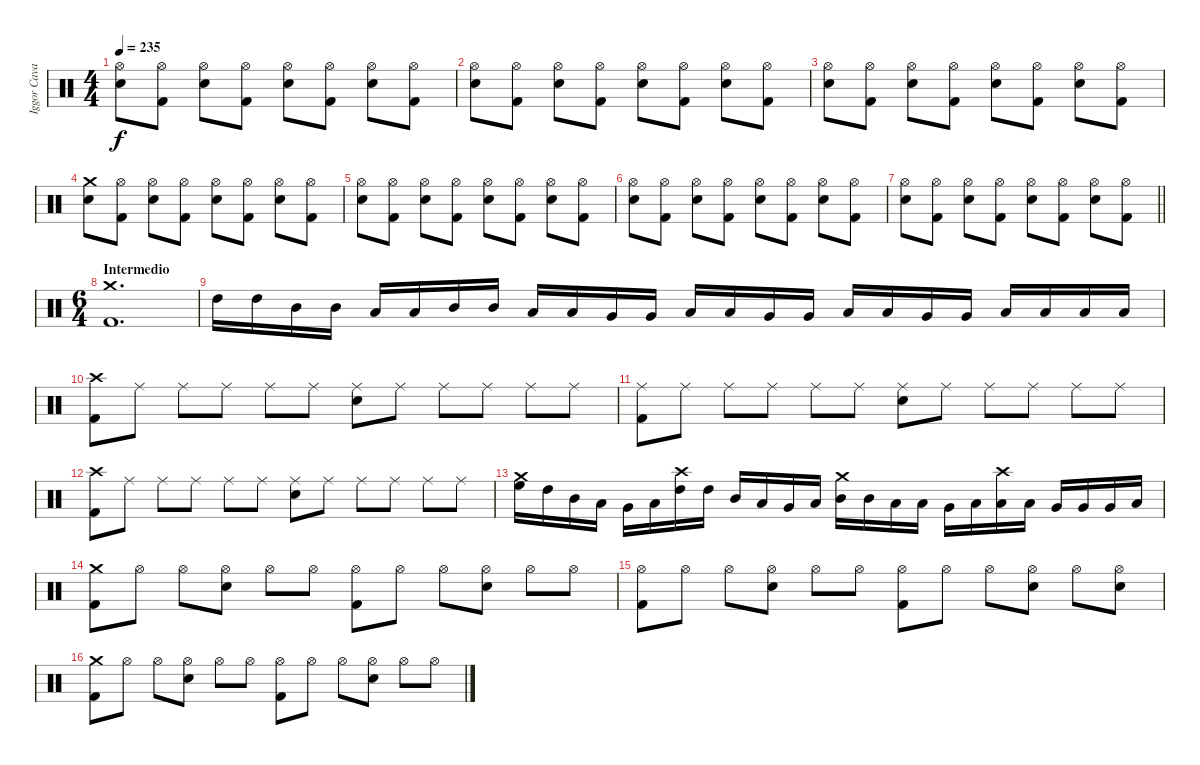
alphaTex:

\track ("Iggor Cavalera" "Iggor Cava") {instrument percussion}
\staff {score}
\articulation defaults
\ts (4 4)
\tempo 235
\clef neutral
\ks c
("Hi-Hat (open)" "Snare (hit) 2").8{dy f} ("Hi-Hat (open)" "Kick (hit) 2").8 ("Hi-Hat (open)" "Snare (hit) 2").8 ("Hi-Hat (open)" "Kick (hit) 2").8 ("Hi-Hat (open)" "Snare (hit) 2").8 ("Hi-Hat (open)" "Kick (hit) 2").8 ("Hi-Hat (open)" "Snare (hit) 2").8 ("Hi-Hat (open)" "Kick (hit) 2").8 |
("Hi-Hat (open)" "Snare (hit) 2").8 ("Hi-Hat (open)" "Kick (hit) 2").8 ("Hi-Hat (open)" "Snare (hit) 2").8 ("Hi-Hat (open)" "Kick (hit) 2").8 ("Hi-Hat (open)" "Snare (hit) 2").8 ("Hi-Hat (open)" "Kick (hit) 2").8 ("Hi-Hat (open)" "Snare (hit) 2").8 ("Hi-Hat (open)" "Kick (hit) 2").8 |
("Hi-Hat (open)" "Snare (hit) 2").8 ("Hi-Hat (open)" "Kick (hit) 2").8 ("Hi-Hat (open)" "Snare (hit) 2").8 ("Hi-Hat (open)" "Kick (hit) 2").8 ("Hi-Hat (open)" "Snare (hit) 2").8 ("Hi-Hat (open)" "Kick (hit) 2").8 ("Hi-Hat (open)" "Snare (hit) 2").8 ("Hi-Hat (open)" "Kick (hit) 2").8 |
("Crash medium (hit)" "Snare (hit) 2").8 ("Hi-Hat (open)" "Kick (hit) 2").8 ("Hi-Hat (open)" "Snare (hit) 2").8 ("Hi-Hat (open)" "Kick (hit) 2").8 ("Hi-Hat (open)" "Snare (hit) 2").8 ("Hi-Hat (open)" "Kick (hit) 2").8 ("Hi-Hat (open)" "Snare (hit) 2").8 ("Hi-Hat (open)" "Kick (hit) 2").8 |
("Hi-Hat (open)" "Snare (hit) 2").8 ("Hi-Hat (open)" "Kick (hit) 2").8 ("Hi-Hat (open)" "Snare (hit) 2").8 ("Hi-Hat (open)" "Kick (hit) 2").8 ("Hi-Hat (open)" "Snare (hit) 2").8 ("Hi-Hat (open)" "Kick (hit) 2").8 ("Hi-Hat (open)" "Snare (hit) 2").8 ("Hi-Hat (open)" "Kick (hit) 2").8 |
("Hi-Hat (open)" "Snare (hit) 2").8 ("Hi-Hat (open)" "Kick (hit) 2").8 ("Hi-Hat (open)" "Snare (hit) 2").8 ("Hi-Hat (open)" "Kick (hit) 2").8 ("Hi-Hat (open)" "Snare (hit) 2").8 ("Hi-Hat (open)" "Kick (hit) 2").8 ("Hi-Hat (open)" "Snare (hit) 2").8 ("Hi-Hat (open)" "Kick (hit) 2").8 |
\barLineRight lightlight
("Hi-Hat (open)" "Snare (hit) 2").8 ("Hi-Hat (open)" "Kick (hit) 2").8 ("Hi-Hat (open)" "Snare (hit) 2").8 ("Hi-Hat (open)" "Kick (hit) 2").8 ("Hi-Hat (open)" "Snare (hit) 2").8 ("Hi-Hat (open)" "Kick (hit) 2").8 ("Hi-Hat (open)" "Snare (hit) 2").8 ("Hi-Hat (open)" "Kick (hit) 2").8 |
\ts (6 4)
\section ("" "Intermedio")
("Crash medium (hit)" "Kick (hit) 2").1{d} |
"High Tom (hit)".16 "High Tom (hit)".16 "Mid Tom (hit)".16 "Mid Tom (hit)".16 "Low Tom (hit)".16 "Low Tom (hit)".16 "Mid Tom (hit)".16 "Mid Tom (hit)".16 "Low Tom (hit)".16 "Low Tom (hit)".16 "Very Low Tom (hit)".16 "Very Low Tom (hit)".16 "Low Tom (hit)".16 "Low Tom (hit)".16 "Very Low Tom (hit)".16 "Very Low Tom (hit)".16 "Low Floor Tom (hit)".16 "Low Floor Tom (hit)".16 "Very Low Tom (hit)".16 "Very Low Tom (hit)".16 "Low Floor Tom (hit)".16 "Low Floor Tom (hit)".16 "Low Floor Tom (hit)".16 "Low Floor Tom (hit)".16 |
("Crash high (hit)" "Kick (hit) 2").8 "Ride (middle)".8 "Ride (middle)".8 "Ride (middle)".8 "Ride (middle)".8 "Ride (middle)".8 ("Ride (middle)" "Snare (hit) 2").8 "Ride (middle)".8 "Ride (middle)".8 "Ride (middle)".8 "Ride (middle)".8 "Ride (middle)".8 |
("Ride (middle)" "Kick (hit) 2").8 "Ride (middle)".8 "Ride (middle)".8 "Ride (middle)".8 "Ride (middle)".8 "Ride (middle)".8 ("Ride (middle)" "Snare (hit) 2").8 "Ride (middle)".8 "Ride (middle)".8 "Ride (middle)".8 "Ride (middle)".8 "Ride (middle)".8 |
("Crash high (hit)" "Kick (hit) 2").8 "Ride (middle)".8 "Ride (middle)".8 "Ride (middle)".8 "Ride (middle)".8 "Ride (middle)".8 ("Ride (middle)" "Snare (hit) 2").8 "Ride (middle)".8 "Ride (middle)".8 "Ride (middle)".8 "Ride (middle)".8 "Ride (middle)".8 |
("Crash medium (hit)" "High Floor Tom (hit)").16 "High Tom (hit)".16 "Mid Tom (hit)".16 "Low Tom (hit)".16 "Very Low Tom (hit)".16 "Low Floor Tom (hit)".16 ("Crash high (hit)" "High Tom (hit)").16 "High Tom (hit)".16 "Mid Tom (hit)".16 "Low Tom (hit)".16 "Very Low Tom (hit)".16 "Low Floor Tom (hit)".16 ("Crash medium (hit)" "Mid Tom (hit)").16 "Mid Tom (hit)".16 "Low Tom (hit)".16 "Low Tom (hit)".16 "Very Low Tom (hit)".16 "Low Floor Tom (hit)".16 ("Crash high (hit)" "Low Tom (hit)").16 "Low Tom (hit)".16 "Very Low Tom (hit)".16 "Very Low Tom (hit)".16 "Very Low Tom (hit)".16 "Low Floor Tom (hit)".16 |
("Crash medium (hit)" "Kick (hit) 2").8 "Hi-Hat (open)".8 "Hi-Hat (open)".8 ("Hi-Hat (open)" "Snare (hit) 2").8 "Hi-Hat (open)".8 "Hi-Hat (open)".8 ("Hi-Hat (open)" "Kick (hit) 2").8 "Hi-Hat (open)".8 "Hi-Hat (open)".8 ("Hi-Hat (open)" "Snare (hit) 2").8 "Hi-Hat (open)".8 "Hi-Hat (open)".8 |
("Hi-Hat (open)" "Kick (hit) 2").8 "Hi-Hat (open)".8 "Hi-Hat (open)".8 ("Hi-Hat (open)" "Snare (hit) 2").8 "Hi-Hat (open)".8 "Hi-Hat (open)".8 ("Hi-Hat (open)" "Kick (hit) 2").8 "Hi-Hat (open)".8 "Hi-Hat (open)".8 ("Hi-Hat (open)" "Snare (hit) 2").8 "Hi-Hat (open)".8 ("Hi-Hat (open)" "Snare (hit) 2").8 |
("Crash medium (hit)" "Kick (hit) 2").8 "Hi-Hat (open)".8 "Hi-Hat (open)".8 ("Hi-Hat (open)" "Snare (hit) 2").8 "Hi-Hat (open)".8 "Hi-Hat (open)".8 ("Hi-Hat (open)" "Kick (hit) 2").8 "Hi-Hat (open)".8 "Hi-Hat (open)".8 ("Hi-Hat (open)" "Snare (hit) 2").8 "Hi-Hat (open)".8 "Hi-Hat (open)".8
